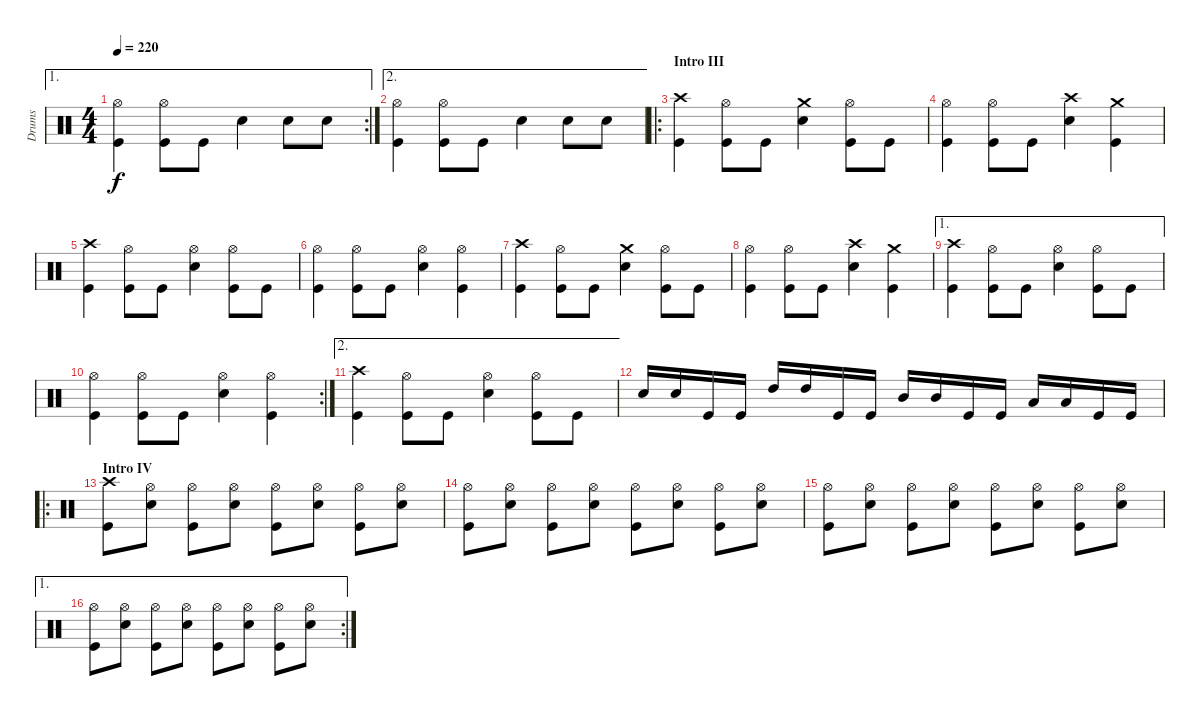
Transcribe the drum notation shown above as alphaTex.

\track ("Drums" "Drums") {instrument percussion}
\staff {score}
\articulation defaults
\ae 1
\rc 2
\ts (4 4)
\tempo 220
\clef neutral
\ks c
("Hi-Hat (open)" "Kick (hit)").4{dy f} ("Hi-Hat (open)" "Kick (hit)").8 "Kick (hit)".8 "Snare (hit) 2".4 "Snare (hit) 2".8 "Snare (hit) 2".8 |
\ae 2
("Hi-Hat (open)" "Kick (hit)").4 ("Hi-Hat (open)" "Kick (hit)").8 "Kick (hit)".8 "Snare (hit) 2".4 "Snare (hit) 2".8 "Snare (hit) 2".8 |
\ro
\section ("" "Intro III")
("Crash high (hit)" "Kick (hit)").4 ("Hi-Hat (open)" "Kick (hit)").8 "Kick (hit)".8 ("Crash medium (hit)" "Snare (hit) 2").4 ("Hi-Hat (open)" "Kick (hit)").8 "Kick (hit)".8 |
("Hi-Hat (open)" "Kick (hit)").4 ("Hi-Hat (open)" "Kick (hit)").8 "Kick (hit)".8 ("Crash high (hit)" "Snare (hit) 2").4 ("Crash medium (hit)" "Kick (hit)").4 |
("Crash high (hit)" "Kick (hit)").4 ("Hi-Hat (open)" "Kick (hit)").8 "Kick (hit)".8 ("Hi-Hat (open)" "Snare (hit) 2").4 ("Hi-Hat (open)" "Kick (hit)").8 "Kick (hit)".8 |
("Hi-Hat (open)" "Kick (hit)").4 ("Hi-Hat (open)" "Kick (hit)").8 "Kick (hit)".8 ("Hi-Hat (open)" "Snare (hit) 2").4 ("Hi-Hat (open)" "Kick (hit)").4 |
("Crash high (hit)" "Kick (hit)").4 ("Hi-Hat (open)" "Kick (hit)").8 "Kick (hit)".8 ("Crash medium (hit)" "Snare (hit) 2").4 ("Hi-Hat (open)" "Kick (hit)").8 "Kick (hit)".8 |
("Hi-Hat (open)" "Kick (hit)").4 ("Hi-Hat (open)" "Kick (hit)").8 "Kick (hit)".8 ("Crash high (hit)" "Snare (hit) 2").4 ("Crash medium (hit)" "Kick (hit)").4 |
\ae 1
("Crash high (hit)" "Kick (hit)").4 ("Hi-Hat (open)" "Kick (hit)").8 "Kick (hit)".8 ("Hi-Hat (open)" "Snare (hit) 2").4 ("Hi-Hat (open)" "Kick (hit)").8 "Kick (hit)".8 |
\rc 2
("Hi-Hat (open)" "Kick (hit)").4 ("Hi-Hat (open)" "Kick (hit)").8 "Kick (hit)".8 ("Hi-Hat (open)" "Snare (hit) 2").4 ("Hi-Hat (open)" "Kick (hit)").4 |
\ae 2
("Crash high (hit)" "Kick (hit)").4 ("Hi-Hat (open)" "Kick (hit)").8 "Kick (hit)".8 ("Hi-Hat (open)" "Snare (hit) 2").4 ("Hi-Hat (open)" "Kick (hit)").8 "Kick (hit)".8 |
"Snare (hit) 2".16 "Snare (hit) 2".16 "Kick (hit)".16 "Kick (hit)".16 "High Tom (hit)".16 "High Tom (hit)".16 "Kick (hit)".16 "Kick (hit)".16 "Mid Tom (hit)".16 "Mid Tom (hit)".16 "Kick (hit)".16 "Kick (hit)".16 "Low Tom (hit)".16 "Low Tom (hit)".16 "Kick (hit)".16 "Kick (hit)".16 |
\ro
\section ("" "Intro IV")
("Crash high (hit)" "Kick (hit)").8 ("Hi-Hat (open)" "Snare (hit) 2").8 ("Hi-Hat (open)" "Kick (hit)").8 ("Hi-Hat (open)" "Snare (hit) 2").8 ("Hi-Hat (open)" "Kick (hit)").8 ("Hi-Hat (open)" "Snare (hit) 2").8 ("Hi-Hat (open)" "Kick (hit)").8 ("Hi-Hat (open)" "Snare (hit) 2").8 |
("Hi-Hat (open)" "Kick (hit)").8 ("Hi-Hat (open)" "Snare (hit) 2").8 ("Hi-Hat (open)" "Kick (hit)").8 ("Hi-Hat (open)" "Snare (hit) 2").8 ("Hi-Hat (open)" "Kick (hit)").8 ("Hi-Hat (open)" "Snare (hit) 2").8 ("Hi-Hat (open)" "Kick (hit)").8 ("Hi-Hat (open)" "Snare (hit) 2").8 |
("Hi-Hat (open)" "Kick (hit)").8 ("Hi-Hat (open)" "Snare (hit) 2").8 ("Hi-Hat (open)" "Kick (hit)").8 ("Hi-Hat (open)" "Snare (hit) 2").8 ("Hi-Hat (open)" "Kick (hit)").8 ("Hi-Hat (open)" "Snare (hit) 2").8 ("Hi-Hat (open)" "Kick (hit)").8 ("Hi-Hat (open)" "Snare (hit) 2").8 |
\ae 1
\rc 2
("Hi-Hat (open)" "Kick (hit)").8 ("Hi-Hat (open)" "Snare (hit) 2").8 ("Hi-Hat (open)" "Kick (hit)").8 ("Hi-Hat (open)" "Snare (hit) 2").8 ("Hi-Hat (open)" "Kick (hit)").8 ("Hi-Hat (open)" "Snare (hit) 2").8 ("Hi-Hat (open)" "Kick (hit)").8 ("Hi-Hat (open)" "Snare (hit) 2").8
